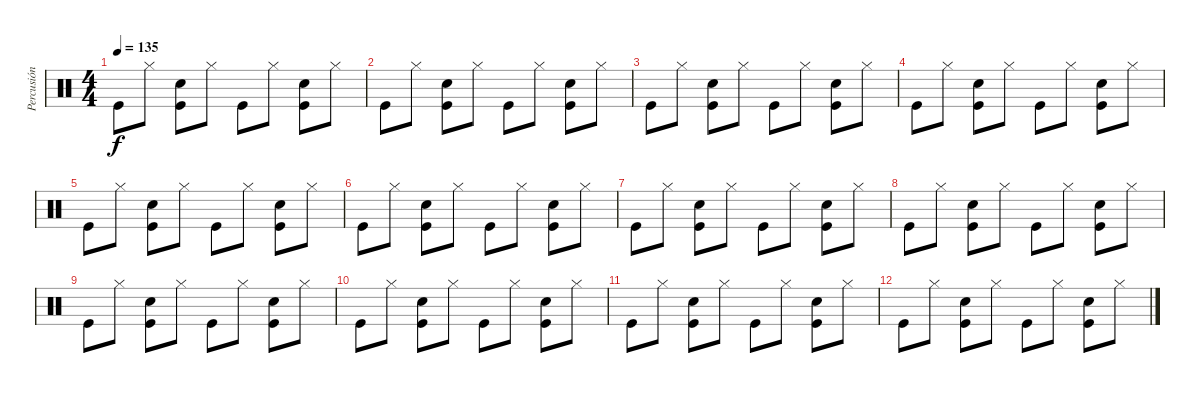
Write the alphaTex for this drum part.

\track ("Percusión" "Percusión") {instrument percussion}
\staff {score}
\articulation defaults
\ts (4 4)
\tempo 135
\clef neutral
\ks c "Kick (hit)".8{dy f} "Hi-Hat (closed)".8
("Hand Clap (hit)" "Kick (hit)").8 "Hi-Hat (closed)".8 "Kick (hit)".8 "Hi-Hat (closed)".8 ("Hand Clap (hit)" "Kick (hit)").8 "Hi-Hat (closed)".8 |
"Kick (hit)".8 "Hi-Hat (closed)".8 ("Hand Clap (hit)" "Kick (hit)").8 "Hi-Hat (closed)".8 "Kick (hit)".8 "Hi-Hat (closed)".8 ("Hand Clap (hit)" "Kick (hit)").8 "Hi-Hat (closed)".8 |
"Kick (hit)".8 "Hi-Hat (closed)".8 ("Hand Clap (hit)" "Kick (hit)").8 "Hi-Hat (closed)".8 "Kick (hit)".8 "Hi-Hat (closed)".8 ("Hand Clap (hit)" "Kick (hit)").8 "Hi-Hat (closed)".8 |
"Kick (hit)".8 "Hi-Hat (closed)".8 ("Hand Clap (hit)" "Kick (hit)").8 "Hi-Hat (closed)".8 "Kick (hit)".8 "Hi-Hat (closed)".8 ("Hand Clap (hit)" "Kick (hit)").8 "Hi-Hat (closed)".8 |
"Kick (hit)".8 "Hi-Hat (closed)".8 ("Hand Clap (hit)" "Kick (hit)").8 "Hi-Hat (closed)".8 "Kick (hit)".8 "Hi-Hat (closed)".8 ("Hand Clap (hit)" "Kick (hit)").8 "Hi-Hat (closed)".8 |
"Kick (hit)".8 "Hi-Hat (closed)".8 ("Hand Clap (hit)" "Kick (hit)").8 "Hi-Hat (closed)".8 "Kick (hit)".8 "Hi-Hat (closed)".8 ("Hand Clap (hit)" "Kick (hit)").8 "Hi-Hat (closed)".8 |
"Kick (hit)".8 "Hi-Hat (closed)".8 ("Hand Clap (hit)" "Kick (hit)").8 "Hi-Hat (closed)".8 "Kick (hit)".8 "Hi-Hat (closed)".8 ("Hand Clap (hit)" "Kick (hit)").8 "Hi-Hat (closed)".8 |
"Kick (hit)".8 "Hi-Hat (closed)".8 ("Hand Clap (hit)" "Kick (hit)").8 "Hi-Hat (closed)".8 "Kick (hit)".8 "Hi-Hat (closed)".8 ("Hand Clap (hit)" "Kick (hit)").8 "Hi-Hat (closed)".8 |
"Kick (hit)".8 "Hi-Hat (closed)".8 ("Hand Clap (hit)" "Kick (hit)").8 "Hi-Hat (closed)".8 "Kick (hit)".8 "Hi-Hat (closed)".8 ("Hand Clap (hit)" "Kick (hit)").8 "Hi-Hat (closed)".8 |
"Kick (hit)".8 "Hi-Hat (closed)".8 ("Hand Clap (hit)" "Kick (hit)").8 "Hi-Hat (closed)".8 "Kick (hit)".8 "Hi-Hat (closed)".8 ("Hand Clap (hit)" "Kick (hit)").8 "Hi-Hat (closed)".8 |
"Kick (hit)".8 "Hi-Hat (closed)".8 ("Hand Clap (hit)" "Kick (hit)").8 "Hi-Hat (closed)".8 "Kick (hit)".8 "Hi-Hat (closed)".8 ("Hand Clap (hit)" "Kick (hit)").8 "Hi-Hat (closed)".8 |
"Kick (hit)".8 "Hi-Hat (closed)".8 ("Hand Clap (hit)" "Kick (hit)").8 "Hi-Hat (closed)".8 "Kick (hit)".8 "Hi-Hat (closed)".8 ("Hand Clap (hit)" "Kick (hit)").8 "Hi-Hat (closed)".8
